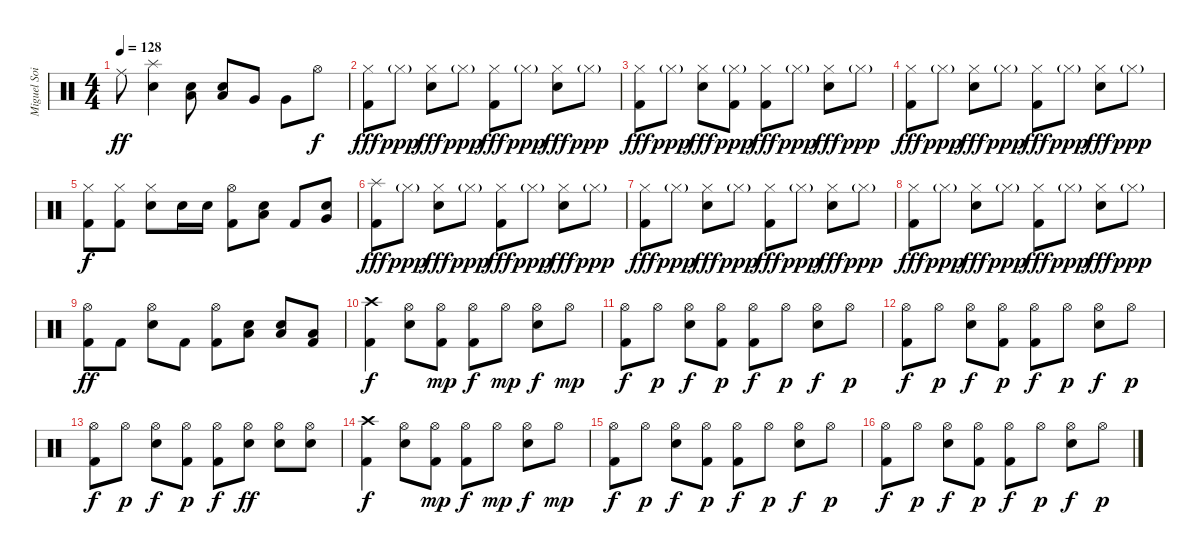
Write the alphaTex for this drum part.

\track ("Miguel Soifer (Batería)" "Miguel Soi") {instrument percussion}
\staff {score}
\articulation defaults
\ts (4 4)
\tempo 128
\clef neutral
\ks c "Ride (middle)".8{dy ff}
("Splash (hit)" "Snare (hit) 2").4 ("Snare (hit) 2" "Low Tom (hit)").8 ("Snare (hit) 2" "Low Tom (hit)").8 "Very Low Tom (hit)".8 "Very Low Tom (hit)".8 "Hi-Hat (open)".8{dy f} |
("Hi-Hat (closed)" "Kick (hit) 2").8{dy fff volume 9} "Hi-Hat (closed)"{g}.8{dy ppp} ("Hi-Hat (closed)" "Snare (hit) 2").8{dy fff} "Hi-Hat (closed)"{g}.8{dy ppp} ("Hi-Hat (closed)" "Kick (hit) 2").8{dy fff} "Hi-Hat (closed)"{g}.8{dy ppp} ("Hi-Hat (closed)" "Snare (hit) 2").8{dy fff} "Hi-Hat (closed)"{g}.8{dy ppp} |
("Hi-Hat (closed)" "Kick (hit) 2").8{dy fff} "Hi-Hat (closed)"{g}.8{dy ppp} ("Hi-Hat (closed)" "Snare (hit) 2").8{dy fff} ("Hi-Hat (closed)"{g} "Kick (hit) 2").8{dy ppp} ("Hi-Hat (closed)" "Kick (hit) 2").8{dy fff} "Hi-Hat (closed)"{g}.8{dy ppp} ("Hi-Hat (closed)" "Snare (hit) 2").8{dy fff} "Hi-Hat (closed)"{g}.8{dy ppp} |
("Hi-Hat (closed)" "Kick (hit) 2").8{dy fff} "Hi-Hat (closed)"{g}.8{dy ppp} ("Hi-Hat (closed)" "Snare (hit) 2").8{dy fff} "Hi-Hat (closed)"{g}.8{dy ppp} ("Hi-Hat (closed)" "Kick (hit) 2").8{dy fff} "Hi-Hat (closed)"{g}.8{dy ppp} ("Hi-Hat (closed)" "Snare (hit) 2").8{dy fff} "Hi-Hat (closed)"{g}.8{dy ppp} |
("Hi-Hat (closed)" "Kick (hit) 2").8{dy f} ("Hi-Hat (closed)" "Kick (hit) 2").8 ("Hi-Hat (closed)" "Snare (hit) 2").8 "Snare (hit) 2".16 "Snare (hit) 2".16 ("Hi-Hat (open)" "Kick (hit) 2").8 ("Low Tom (hit)" "Snare (hit) 2").8 "Kick (hit) 2".8 ("Very Low Tom (hit)" "Snare (hit) 2").8 |
("Splash (hit)" "Kick (hit) 2").8{dy fff} "Hi-Hat (closed)"{g}.8{dy ppp} ("Hi-Hat (closed)" "Snare (hit) 2").8{dy fff} "Hi-Hat (closed)"{g}.8{dy ppp} ("Hi-Hat (closed)" "Kick (hit) 2").8{dy fff} "Hi-Hat (closed)"{g}.8{dy ppp} ("Hi-Hat (closed)" "Snare (hit) 2").8{dy fff} "Hi-Hat (closed)"{g}.8{dy ppp} |
("Hi-Hat (closed)" "Kick (hit) 2").8{dy fff} "Hi-Hat (closed)"{g}.8{dy ppp} ("Hi-Hat (closed)" "Snare (hit) 2").8{dy fff} "Hi-Hat (closed)"{g}.8{dy ppp} ("Hi-Hat (closed)" "Kick (hit) 2").8{dy fff} "Hi-Hat (closed)"{g}.8{dy ppp} ("Hi-Hat (closed)" "Snare (hit) 2").8{dy fff} "Hi-Hat (closed)"{g}.8{dy ppp} |
("Hi-Hat (closed)" "Kick (hit) 2").8{dy fff} "Hi-Hat (closed)"{g}.8{dy ppp} ("Hi-Hat (closed)" "Snare (hit) 2").8{dy fff} "Hi-Hat (closed)"{g}.8{dy ppp} ("Hi-Hat (closed)" "Kick (hit) 2").8{dy fff} "Hi-Hat (closed)"{g}.8{dy ppp} ("Hi-Hat (closed)" "Snare (hit) 2").8{dy fff} "Hi-Hat (closed)"{g}.8{dy ppp} |
("Hi-Hat (open)" "Kick (hit) 2").8{dy ff} "Kick (hit) 2".8 ("Hi-Hat (open)" "Snare (hit) 2").8 "Kick (hit) 2".8 ("Hi-Hat (open)" "Kick (hit) 2").8 ("Low Floor Tom (hit)" "Snare (hit) 2").8 ("Low Floor Tom (hit)" "Snare (hit) 2").8 ("Low Floor Tom (hit)" "Kick (hit) 2").8 |
("Crash high (hit)" "Kick (hit) 2").4{dy f} ("Hi-Hat (open)" "Snare (hit) 2").8 ("Hi-Hat (open)" "Kick (hit) 2").8{dy mp} ("Hi-Hat (open)" "Kick (hit) 2").8{dy f} "Hi-Hat (open)".8{dy mp} ("Hi-Hat (open)" "Snare (hit) 2").8{dy f} "Hi-Hat (open)".8{dy mp} |
("Hi-Hat (open)" "Kick (hit) 2").8{dy f} "Hi-Hat (open)".8{dy p} ("Hi-Hat (open)" "Snare (hit) 2").8{dy f} ("Hi-Hat (open)" "Kick (hit) 2").8{dy p} ("Hi-Hat (open)" "Kick (hit) 2").8{dy f} "Hi-Hat (open)".8{dy p} ("Hi-Hat (open)" "Snare (hit) 2").8{dy f} "Hi-Hat (open)".8{dy p} |
("Hi-Hat (open)" "Kick (hit) 2").8{dy f} "Hi-Hat (open)".8{dy p} ("Hi-Hat (open)" "Snare (hit) 2").8{dy f} ("Hi-Hat (open)" "Kick (hit) 2").8{dy p} ("Hi-Hat (open)" "Kick (hit) 2").8{dy f} "Hi-Hat (open)".8{dy p} ("Hi-Hat (open)" "Snare (hit) 2").8{dy f} "Hi-Hat (open)".8{dy p} |
("Hi-Hat (open)" "Kick (hit) 2").8{dy f} "Hi-Hat (open)".8{dy p} ("Hi-Hat (open)" "Snare (hit) 2").8{dy f} ("Hi-Hat (open)" "Kick (hit) 2").8{dy p} ("Hi-Hat (open)" "Kick (hit) 2").8{dy f} ("Hi-Hat (open)" "Snare (hit) 2").8{dy ff} ("Hi-Hat (open)" "Snare (hit) 2").8 ("Hi-Hat (open)" "Snare (hit) 2").8 |
("Crash high (hit)" "Kick (hit) 2").4{dy f} ("Hi-Hat (open)" "Snare (hit) 2").8 ("Hi-Hat (open)" "Kick (hit) 2").8{dy mp} ("Hi-Hat (open)" "Kick (hit) 2").8{dy f} "Hi-Hat (open)".8{dy mp} ("Hi-Hat (open)" "Snare (hit) 2").8{dy f} "Hi-Hat (open)".8{dy mp} |
("Hi-Hat (open)" "Kick (hit) 2").8{dy f} "Hi-Hat (open)".8{dy p} ("Hi-Hat (open)" "Snare (hit) 2").8{dy f} ("Hi-Hat (open)" "Kick (hit) 2").8{dy p} ("Hi-Hat (open)" "Kick (hit) 2").8{dy f} "Hi-Hat (open)".8{dy p} ("Hi-Hat (open)" "Snare (hit) 2").8{dy f} "Hi-Hat (open)".8{dy p} |
("Hi-Hat (open)" "Kick (hit) 2").8{dy f} "Hi-Hat (open)".8{dy p} ("Hi-Hat (open)" "Snare (hit) 2").8{dy f} ("Hi-Hat (open)" "Kick (hit) 2").8{dy p} ("Hi-Hat (open)" "Kick (hit) 2").8{dy f} "Hi-Hat (open)".8{dy p} ("Hi-Hat (open)" "Snare (hit) 2").8{dy f} "Hi-Hat (open)".8{dy p}
